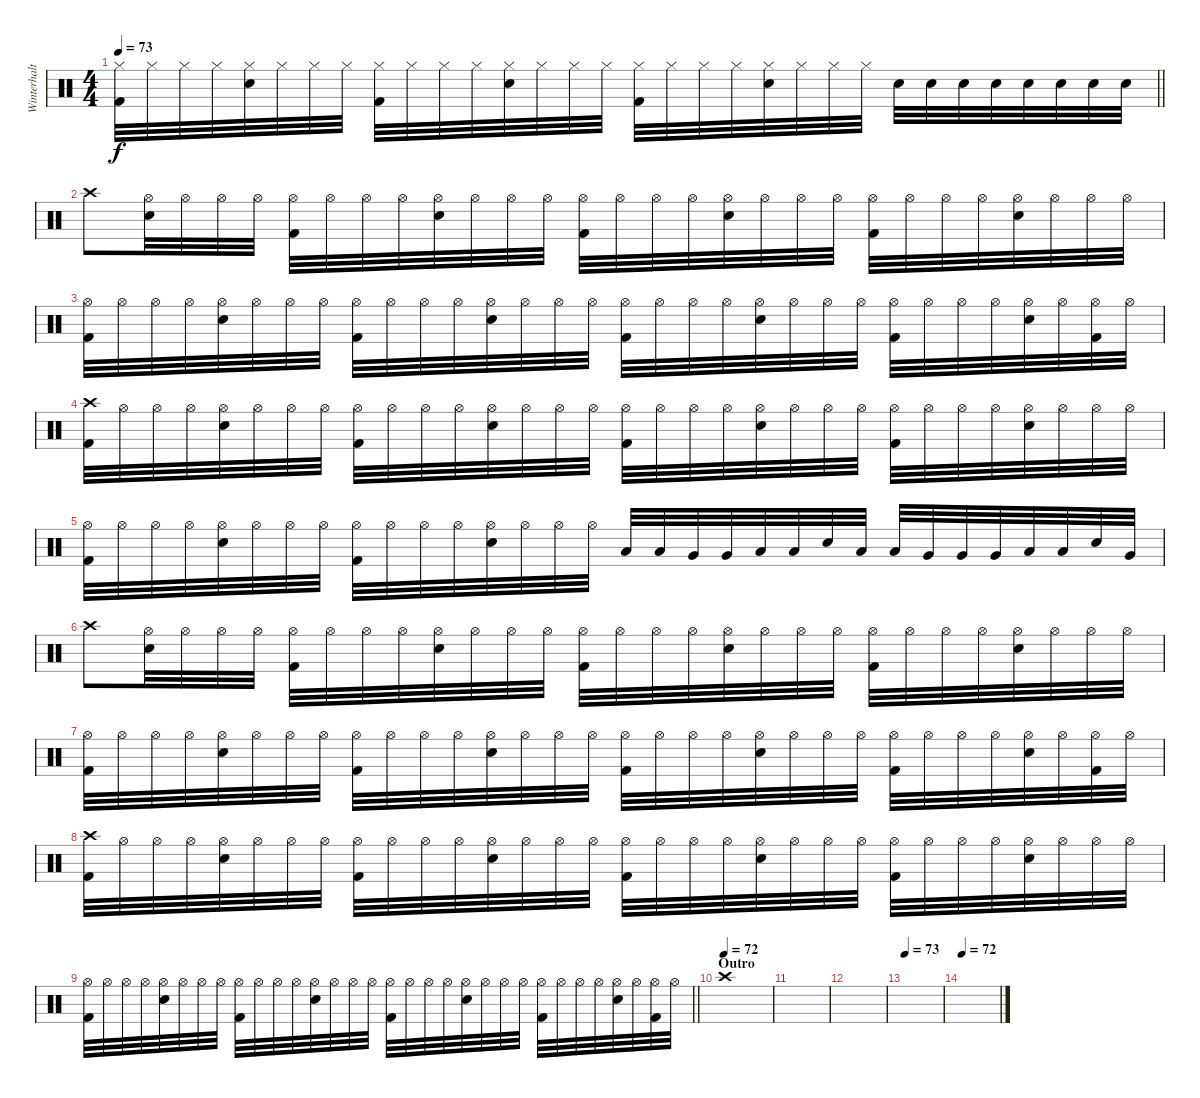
\track ("Winterhalten" "Winterhalt") {instrument percussion}
\staff {score}
\articulation defaults
\ts (4 4)
\tempo 73
\clef neutral
\barLineRight lightlight
\ks c
("Kick (hit) 2" "Hi-Hat (closed)").32{dy f} "Hi-Hat (closed)".32 "Hi-Hat (closed)".32 "Hi-Hat (closed)".32 ("Hi-Hat (closed)" "Snare (hit) 2").32 "Hi-Hat (closed)".32 "Hi-Hat (closed)".32 "Hi-Hat (closed)".32 ("Kick (hit) 2" "Hi-Hat (closed)").32 "Hi-Hat (closed)".32 "Hi-Hat (closed)".32 "Hi-Hat (closed)".32 ("Hi-Hat (closed)" "Snare (hit) 2").32 "Hi-Hat (closed)".32 "Hi-Hat (closed)".32 "Hi-Hat (closed)".32 ("Kick (hit) 2" "Hi-Hat (closed)").32 "Hi-Hat (closed)".32 "Hi-Hat (closed)".32 "Hi-Hat (closed)".32 ("Hi-Hat (closed)" "Snare (hit) 2").32 "Hi-Hat (closed)".32 "Hi-Hat (closed)".32 "Hi-Hat (closed)".32 "Snare (hit) 2".32 "Snare (hit) 2".32 "Snare (hit) 2".32 "Snare (hit) 2".32 "Snare (hit) 2".32 "Snare (hit) 2".32 "Snare (hit) 2".32 "Snare (hit) 2".32 |
\section ("" "")
"Crash high (hit)".8 ("Hi-Hat (open)" "Snare (hit) 2").32 "Hi-Hat (open)".32 "Hi-Hat (open)".32 "Hi-Hat (open)".32 ("Kick (hit) 2" "Hi-Hat (open)").32 "Hi-Hat (open)".32 "Hi-Hat (open)".32 "Hi-Hat (open)".32 ("Hi-Hat (open)" "Snare (hit) 2").32 "Hi-Hat (open)".32 "Hi-Hat (open)".32 "Hi-Hat (open)".32 ("Kick (hit) 2" "Hi-Hat (open)").32 "Hi-Hat (open)".32 "Hi-Hat (open)".32 "Hi-Hat (open)".32 ("Hi-Hat (open)" "Snare (hit) 2").32 "Hi-Hat (open)".32 "Hi-Hat (open)".32 "Hi-Hat (open)".32 ("Kick (hit) 2" "Hi-Hat (open)").32 "Hi-Hat (open)".32 "Hi-Hat (open)".32 "Hi-Hat (open)".32 ("Hi-Hat (open)" "Snare (hit) 2").32 "Hi-Hat (open)".32 "Hi-Hat (open)".32 "Hi-Hat (open)".32 |
("Kick (hit) 2" "Hi-Hat (open)").32 "Hi-Hat (open)".32 "Hi-Hat (open)".32 "Hi-Hat (open)".32 ("Hi-Hat (open)" "Snare (hit) 2").32 "Hi-Hat (open)".32 "Hi-Hat (open)".32 "Hi-Hat (open)".32 ("Kick (hit) 2" "Hi-Hat (open)").32 "Hi-Hat (open)".32 "Hi-Hat (open)".32 "Hi-Hat (open)".32 ("Hi-Hat (open)" "Snare (hit) 2").32 "Hi-Hat (open)".32 "Hi-Hat (open)".32 "Hi-Hat (open)".32 ("Kick (hit) 2" "Hi-Hat (open)").32 "Hi-Hat (open)".32 "Hi-Hat (open)".32 "Hi-Hat (open)".32 ("Hi-Hat (open)" "Snare (hit) 2").32 "Hi-Hat (open)".32 "Hi-Hat (open)".32 "Hi-Hat (open)".32 ("Kick (hit) 2" "Hi-Hat (open)").32 "Hi-Hat (open)".32 "Hi-Hat (open)".32 "Hi-Hat (open)".32 ("Hi-Hat (open)" "Snare (hit) 2").32 "Hi-Hat (open)".32 ("Kick (hit) 2" "Hi-Hat (open)").32 "Hi-Hat (open)".32 |
("Kick (hit) 2" "Crash high (hit)").32 "Hi-Hat (open)".32 "Hi-Hat (open)".32 "Hi-Hat (open)".32 ("Hi-Hat (open)" "Snare (hit) 2").32 "Hi-Hat (open)".32 "Hi-Hat (open)".32 "Hi-Hat (open)".32 ("Kick (hit) 2" "Hi-Hat (open)").32 "Hi-Hat (open)".32 "Hi-Hat (open)".32 "Hi-Hat (open)".32 ("Hi-Hat (open)" "Snare (hit) 2").32 "Hi-Hat (open)".32 "Hi-Hat (open)".32 "Hi-Hat (open)".32 ("Kick (hit) 2" "Hi-Hat (open)").32 "Hi-Hat (open)".32 "Hi-Hat (open)".32 "Hi-Hat (open)".32 ("Hi-Hat (open)" "Snare (hit) 2").32 "Hi-Hat (open)".32 "Hi-Hat (open)".32 "Hi-Hat (open)".32 ("Kick (hit) 2" "Hi-Hat (open)").32 "Hi-Hat (open)".32 "Hi-Hat (open)".32 "Hi-Hat (open)".32 ("Hi-Hat (open)" "Snare (hit) 2").32 "Hi-Hat (open)".32 "Hi-Hat (open)".32 "Hi-Hat (open)".32 |
("Kick (hit) 2" "Hi-Hat (open)").32 "Hi-Hat (open)".32 "Hi-Hat (open)".32 "Hi-Hat (open)".32 ("Hi-Hat (open)" "Snare (hit) 2").32 "Hi-Hat (open)".32 "Hi-Hat (open)".32 "Hi-Hat (open)".32 ("Kick (hit) 2" "Hi-Hat (open)").32 "Hi-Hat (open)".32 "Hi-Hat (open)".32 "Hi-Hat (open)".32 ("Hi-Hat (open)" "Snare (hit) 2").32 "Hi-Hat (open)".32 "Hi-Hat (open)".32 "Hi-Hat (open)".32 "Low Tom (hit)".32 "Low Tom (hit)".32 "Very Low Tom (hit)".32 "Very Low Tom (hit)".32 "Low Floor Tom (hit)".32 "Low Floor Tom (hit)".32 "Snare (hit) 2".32 "Low Tom (hit)".32 "Low Tom (hit)".32 "Very Low Tom (hit)".32 "Very Low Tom (hit)".32 "Very Low Tom (hit)".32 "Low Floor Tom (hit)".32 "Low Floor Tom (hit)".32 "Snare (hit) 2".32 "Very Low Tom (hit)".32 |
"Crash high (hit)".8 ("Hi-Hat (open)" "Snare (hit) 2").32 "Hi-Hat (open)".32 "Hi-Hat (open)".32 "Hi-Hat (open)".32 ("Kick (hit) 2" "Hi-Hat (open)").32 "Hi-Hat (open)".32 "Hi-Hat (open)".32 "Hi-Hat (open)".32 ("Hi-Hat (open)" "Snare (hit) 2").32 "Hi-Hat (open)".32 "Hi-Hat (open)".32 "Hi-Hat (open)".32 ("Kick (hit) 2" "Hi-Hat (open)").32 "Hi-Hat (open)".32 "Hi-Hat (open)".32 "Hi-Hat (open)".32 ("Hi-Hat (open)" "Snare (hit) 2").32 "Hi-Hat (open)".32 "Hi-Hat (open)".32 "Hi-Hat (open)".32 ("Kick (hit) 2" "Hi-Hat (open)").32 "Hi-Hat (open)".32 "Hi-Hat (open)".32 "Hi-Hat (open)".32 ("Hi-Hat (open)" "Snare (hit) 2").32 "Hi-Hat (open)".32 "Hi-Hat (open)".32 "Hi-Hat (open)".32 |
("Kick (hit) 2" "Hi-Hat (open)").32 "Hi-Hat (open)".32 "Hi-Hat (open)".32 "Hi-Hat (open)".32 ("Hi-Hat (open)" "Snare (hit) 2").32 "Hi-Hat (open)".32 "Hi-Hat (open)".32 "Hi-Hat (open)".32 ("Kick (hit) 2" "Hi-Hat (open)").32 "Hi-Hat (open)".32 "Hi-Hat (open)".32 "Hi-Hat (open)".32 ("Hi-Hat (open)" "Snare (hit) 2").32 "Hi-Hat (open)".32 "Hi-Hat (open)".32 "Hi-Hat (open)".32 ("Kick (hit) 2" "Hi-Hat (open)").32 "Hi-Hat (open)".32 "Hi-Hat (open)".32 "Hi-Hat (open)".32 ("Hi-Hat (open)" "Snare (hit) 2").32 "Hi-Hat (open)".32 "Hi-Hat (open)".32 "Hi-Hat (open)".32 ("Kick (hit) 2" "Hi-Hat (open)").32 "Hi-Hat (open)".32 "Hi-Hat (open)".32 "Hi-Hat (open)".32 ("Hi-Hat (open)" "Snare (hit) 2").32 "Hi-Hat (open)".32 ("Kick (hit) 2" "Hi-Hat (open)").32 "Hi-Hat (open)".32 |
("Kick (hit) 2" "Crash high (hit)").32 "Hi-Hat (open)".32 "Hi-Hat (open)".32 "Hi-Hat (open)".32 ("Hi-Hat (open)" "Snare (hit) 2").32 "Hi-Hat (open)".32 "Hi-Hat (open)".32 "Hi-Hat (open)".32 ("Kick (hit) 2" "Hi-Hat (open)").32 "Hi-Hat (open)".32 "Hi-Hat (open)".32 "Hi-Hat (open)".32 ("Hi-Hat (open)" "Snare (hit) 2").32 "Hi-Hat (open)".32 "Hi-Hat (open)".32 "Hi-Hat (open)".32 ("Kick (hit) 2" "Hi-Hat (open)").32 "Hi-Hat (open)".32 "Hi-Hat (open)".32 "Hi-Hat (open)".32 ("Hi-Hat (open)" "Snare (hit) 2").32 "Hi-Hat (open)".32 "Hi-Hat (open)".32 "Hi-Hat (open)".32 ("Kick (hit) 2" "Hi-Hat (open)").32 "Hi-Hat (open)".32 "Hi-Hat (open)".32 "Hi-Hat (open)".32 ("Hi-Hat (open)" "Snare (hit) 2").32 "Hi-Hat (open)".32 "Hi-Hat (open)".32 "Hi-Hat (open)".32 |
\barLineRight lightlight
("Kick (hit) 2" "Hi-Hat (open)").32 "Hi-Hat (open)".32 "Hi-Hat (open)".32 "Hi-Hat (open)".32 ("Hi-Hat (open)" "Snare (hit) 2").32 "Hi-Hat (open)".32 "Hi-Hat (open)".32 "Hi-Hat (open)".32 ("Kick (hit) 2" "Hi-Hat (open)").32 "Hi-Hat (open)".32 "Hi-Hat (open)".32 "Hi-Hat (open)".32 ("Hi-Hat (open)" "Snare (hit) 2").32 "Hi-Hat (open)".32 "Hi-Hat (open)".32 "Hi-Hat (open)".32 ("Kick (hit) 2" "Hi-Hat (open)").32 "Hi-Hat (open)".32 "Hi-Hat (open)".32 "Hi-Hat (open)".32 ("Hi-Hat (open)" "Snare (hit) 2").32 "Hi-Hat (open)".32 "Hi-Hat (open)".32 "Hi-Hat (open)".32 ("Kick (hit) 2" "Hi-Hat (open)").32 "Hi-Hat (open)".32 "Hi-Hat (open)".32 "Hi-Hat (open)".32 ("Hi-Hat (open)" "Snare (hit) 2").32 "Hi-Hat (open)".32 ("Kick (hit) 2" "Hi-Hat (open)").32 "Hi-Hat (open)".32 |
\section ("" "Outro")
\tempo (72)
"Crash high (hit)".1 |
|
|
\tempo 73
|
\tempo 72
